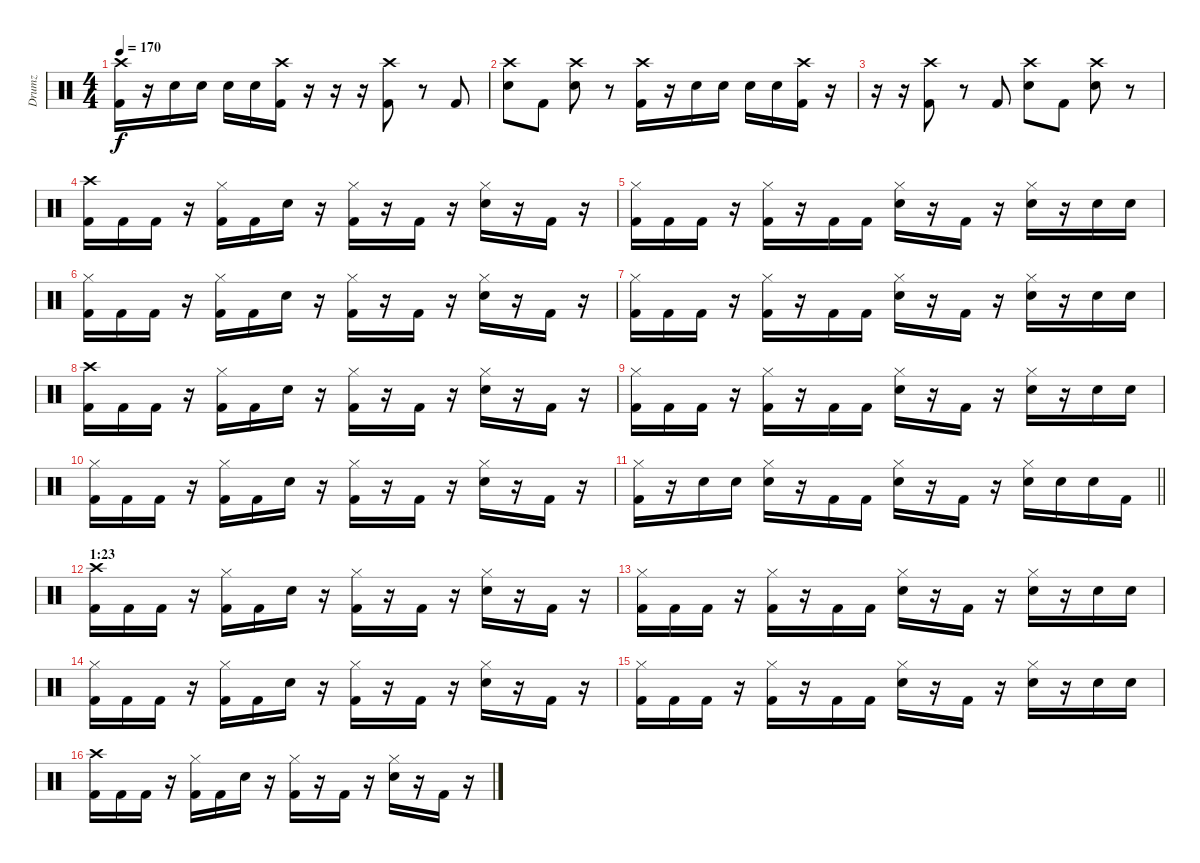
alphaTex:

\track ("Drumz" "Drumz") {instrument percussion}
\staff {score}
\articulation defaults
\ts (4 4)
\tempo 170
\clef neutral
\ks c
("Crash high (hit)" "Kick (hit) 2").16{dy f} r.16 "Electric Snare (hit)".16 "Electric Snare (hit)".16 "Electric Snare (hit)".16 "Electric Snare (hit)".16 ("Crash high (hit)" "Kick (hit) 2").16 r.16 r.16 r.16 ("Crash high (hit)" "Kick (hit) 2").8 r.8 "Kick (hit) 2".8 |
("Crash high (hit)" "Electric Snare (hit)").8 "Kick (hit) 2".8 ("Crash high (hit)" "Electric Snare (hit)").8 r.8 ("Crash high (hit)" "Kick (hit) 2").16 r.16 "Electric Snare (hit)".16 "Electric Snare (hit)".16 "Electric Snare (hit)".16 "Electric Snare (hit)".16 ("Crash high (hit)" "Kick (hit) 2").16 r.16 |
r.16 r.16 ("Crash high (hit)" "Kick (hit) 2").8 r.8 "Kick (hit) 2".8 ("Crash high (hit)" "Electric Snare (hit)").8 "Kick (hit) 2".8 ("Crash high (hit)" "Electric Snare (hit)").8 r.8 |
("Crash high (hit)" "Kick (hit) 2").16 "Kick (hit) 2".16 "Kick (hit) 2".16 r.16 ("Hi-Hat (closed)" "Kick (hit) 2").16 "Kick (hit) 2".16 "Electric Snare (hit)".16 r.16 ("Hi-Hat (closed)" "Kick (hit) 2").16 r.16 "Kick (hit) 2".16 r.16 ("Hi-Hat (closed)" "Electric Snare (hit)").16 r.16 "Kick (hit) 2".16 r.16 |
("Hi-Hat (closed)" "Kick (hit) 2").16 "Kick (hit) 2".16 "Kick (hit) 2".16 r.16 ("Hi-Hat (closed)" "Kick (hit) 2").16 r.16 "Kick (hit) 2".16 "Kick (hit) 2".16 ("Hi-Hat (closed)" "Electric Snare (hit)").16 r.16 "Kick (hit) 2".16 r.16 ("Hi-Hat (closed)" "Electric Snare (hit)").16 r.16 "Electric Snare (hit)".16 "Electric Snare (hit)".16 |
("Hi-Hat (closed)" "Kick (hit) 2").16 "Kick (hit) 2".16 "Kick (hit) 2".16 r.16 ("Hi-Hat (closed)" "Kick (hit) 2").16 "Kick (hit) 2".16 "Electric Snare (hit)".16 r.16 ("Hi-Hat (closed)" "Kick (hit) 2").16 r.16 "Kick (hit) 2".16 r.16 ("Hi-Hat (closed)" "Electric Snare (hit)").16 r.16 "Kick (hit) 2".16 r.16 |
("Hi-Hat (closed)" "Kick (hit) 2").16 "Kick (hit) 2".16 "Kick (hit) 2".16 r.16 ("Hi-Hat (closed)" "Kick (hit) 2").16 r.16 "Kick (hit) 2".16 "Kick (hit) 2".16 ("Hi-Hat (closed)" "Electric Snare (hit)").16 r.16 "Kick (hit) 2".16 r.16 ("Hi-Hat (closed)" "Electric Snare (hit)").16 r.16 "Electric Snare (hit)".16 "Electric Snare (hit)".16 |
("Crash high (hit)" "Kick (hit) 2").16 "Kick (hit) 2".16 "Kick (hit) 2".16 r.16 ("Hi-Hat (closed)" "Kick (hit) 2").16 "Kick (hit) 2".16 "Electric Snare (hit)".16 r.16 ("Hi-Hat (closed)" "Kick (hit) 2").16 r.16 "Kick (hit) 2".16 r.16 ("Hi-Hat (closed)" "Electric Snare (hit)").16 r.16 "Kick (hit) 2".16 r.16 |
("Hi-Hat (closed)" "Kick (hit) 2").16 "Kick (hit) 2".16 "Kick (hit) 2".16 r.16 ("Hi-Hat (closed)" "Kick (hit) 2").16 r.16 "Kick (hit) 2".16 "Kick (hit) 2".16 ("Hi-Hat (closed)" "Electric Snare (hit)").16 r.16 "Kick (hit) 2".16 r.16 ("Hi-Hat (closed)" "Electric Snare (hit)").16 r.16 "Electric Snare (hit)".16 "Electric Snare (hit)".16 |
("Hi-Hat (closed)" "Kick (hit) 2").16 "Kick (hit) 2".16 "Kick (hit) 2".16 r.16 ("Hi-Hat (closed)" "Kick (hit) 2").16 "Kick (hit) 2".16 "Electric Snare (hit)".16 r.16 ("Hi-Hat (closed)" "Kick (hit) 2").16 r.16 "Kick (hit) 2".16 r.16 ("Hi-Hat (closed)" "Electric Snare (hit)").16 r.16 "Kick (hit) 2".16 r.16 |
\barLineRight lightlight
("Hi-Hat (closed)" "Kick (hit) 2").16 r.16 "Electric Snare (hit)".16 "Electric Snare (hit)".16 ("Hi-Hat (closed)" "Electric Snare (hit)").16 r.16 "Kick (hit) 2".16 "Kick (hit) 2".16 ("Hi-Hat (closed)" "Electric Snare (hit)").16 r.16 "Kick (hit) 2".16 r.16 ("Hi-Hat (closed)" "Electric Snare (hit)").16 "Electric Snare (hit)".16 "Electric Snare (hit)".16 "Kick (hit) 2".16 |
\section ("" "1:23")
("Crash high (hit)" "Kick (hit) 2").16 "Kick (hit) 2".16 "Kick (hit) 2".16 r.16 ("Hi-Hat (closed)" "Kick (hit) 2").16 "Kick (hit) 2".16 "Electric Snare (hit)".16 r.16 ("Hi-Hat (closed)" "Kick (hit) 2").16 r.16 "Kick (hit) 2".16 r.16 ("Hi-Hat (closed)" "Electric Snare (hit)").16 r.16 "Kick (hit) 2".16 r.16 |
("Hi-Hat (closed)" "Kick (hit) 2").16 "Kick (hit) 2".16 "Kick (hit) 2".16 r.16 ("Hi-Hat (closed)" "Kick (hit) 2").16 r.16 "Kick (hit) 2".16 "Kick (hit) 2".16 ("Hi-Hat (closed)" "Electric Snare (hit)").16 r.16 "Kick (hit) 2".16 r.16 ("Hi-Hat (closed)" "Electric Snare (hit)").16 r.16 "Electric Snare (hit)".16 "Electric Snare (hit)".16 |
("Hi-Hat (closed)" "Kick (hit) 2").16 "Kick (hit) 2".16 "Kick (hit) 2".16 r.16 ("Hi-Hat (closed)" "Kick (hit) 2").16 "Kick (hit) 2".16 "Electric Snare (hit)".16 r.16 ("Hi-Hat (closed)" "Kick (hit) 2").16 r.16 "Kick (hit) 2".16 r.16 ("Hi-Hat (closed)" "Electric Snare (hit)").16 r.16 "Kick (hit) 2".16 r.16 |
("Hi-Hat (closed)" "Kick (hit) 2").16 "Kick (hit) 2".16 "Kick (hit) 2".16 r.16 ("Hi-Hat (closed)" "Kick (hit) 2").16 r.16 "Kick (hit) 2".16 "Kick (hit) 2".16 ("Hi-Hat (closed)" "Electric Snare (hit)").16 r.16 "Kick (hit) 2".16 r.16 ("Hi-Hat (closed)" "Electric Snare (hit)").16 r.16 "Electric Snare (hit)".16 "Electric Snare (hit)".16 |
("Crash high (hit)" "Kick (hit) 2").16 "Kick (hit) 2".16 "Kick (hit) 2".16 r.16 ("Hi-Hat (closed)" "Kick (hit) 2").16 "Kick (hit) 2".16 "Electric Snare (hit)".16 r.16 ("Hi-Hat (closed)" "Kick (hit) 2").16 r.16 "Kick (hit) 2".16 r.16 ("Hi-Hat (closed)" "Electric Snare (hit)").16 r.16 "Kick (hit) 2".16 r.16
